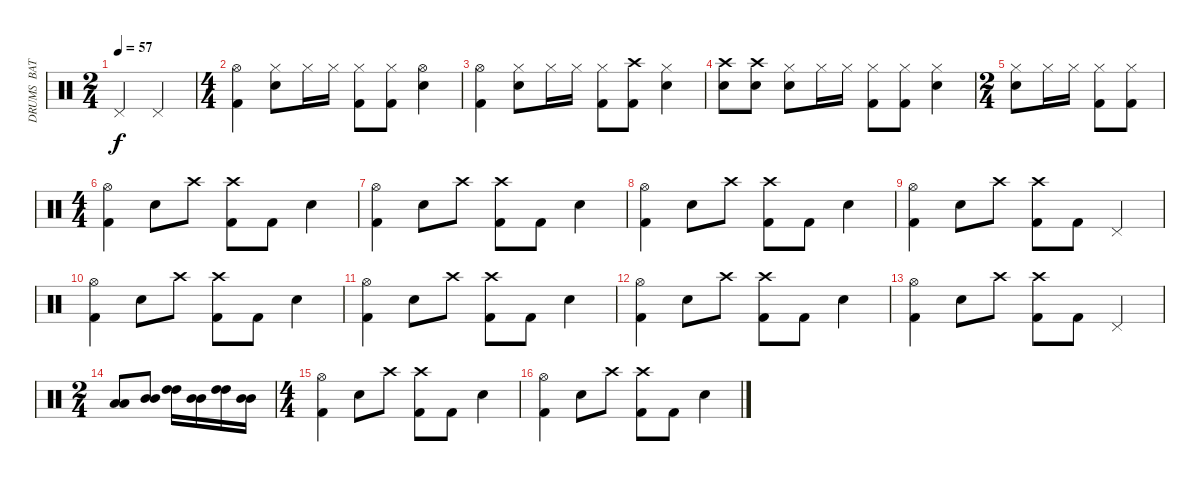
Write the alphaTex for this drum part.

\track ("DRUMS  BATERIA" "DRUMS  BAT") {instrument percussion}
\staff {score}
\articulation defaults
\ts (2 4)
\tempo 57
\clef neutral
\ks c "Pedal Hi-Hat (hit)".4{dy f} "Pedal Hi-Hat (hit)".4
|
\ts (4 4)
("Hi-Hat (open)" "Kick (hit) 2").4 ("Hi-Hat (closed)" "Snare (hit) 2").8 "Hi-Hat (closed)".16 "Hi-Hat (closed)".16 ("Hi-Hat (closed)" "Kick (hit) 2").8 ("Hi-Hat (closed)" "Kick (hit) 2").8 ("Hi-Hat (open)" "Snare (hit) 2").4 |
("Hi-Hat (open)" "Kick (hit) 2").4 ("Hi-Hat (closed)" "Snare (hit) 2").8 "Hi-Hat (closed)".16 "Hi-Hat (closed)".16 ("Hi-Hat (closed)" "Kick (hit) 2").8 ("Crash high (hit)" "Kick (hit) 2").8 ("Hi-Hat (closed)" "Snare (hit) 2").4 |
("Crash high (hit)" "Snare (hit) 2").8 ("Crash high (hit)" "Snare (hit) 2").8 ("Hi-Hat (closed)" "Snare (hit) 2").8 "Hi-Hat (closed)".16 "Hi-Hat (closed)".16 ("Hi-Hat (closed)" "Kick (hit) 2").8 ("Hi-Hat (closed)" "Kick (hit) 2").8 ("Hi-Hat (closed)" "Snare (hit) 2").4 |
\ts (2 4)
("Hi-Hat (closed)" "Snare (hit) 2").8 "Hi-Hat (closed)".16 "Hi-Hat (closed)".16 ("Hi-Hat (closed)" "Kick (hit) 2").8 ("Hi-Hat (closed)" "Kick (hit) 2").8 |
\ts (4 4)
("Hi-Hat (open)" "Kick (hit) 2").4 "Snare (hit) 2".8 "Crash high (hit)".8 ("Crash high (hit)" "Kick (hit) 2").8 "Kick (hit) 2".8 "Snare (hit) 2".4 |
("Hi-Hat (open)" "Kick (hit) 2").4 "Snare (hit) 2".8 "Crash high (hit)".8 ("Crash high (hit)" "Kick (hit) 2").8 "Kick (hit) 2".8 "Snare (hit) 2".4 |
("Hi-Hat (open)" "Kick (hit) 2").4 "Snare (hit) 2".8 "Crash high (hit)".8 ("Crash high (hit)" "Kick (hit) 2").8 "Kick (hit) 2".8 "Snare (hit) 2".4 |
("Hi-Hat (open)" "Kick (hit) 2").4 "Snare (hit) 2".8 "Crash high (hit)".8 ("Crash high (hit)" "Kick (hit) 2").8 "Kick (hit) 2".8 "Pedal Hi-Hat (hit)".4 |
("Hi-Hat (open)" "Kick (hit) 2").4 "Snare (hit) 2".8 "Crash high (hit)".8 ("Crash high (hit)" "Kick (hit) 2").8 "Kick (hit) 2".8 "Snare (hit) 2".4 |
("Hi-Hat (open)" "Kick (hit) 2").4 "Snare (hit) 2".8 "Crash high (hit)".8 ("Crash high (hit)" "Kick (hit) 2").8 "Kick (hit) 2".8 "Snare (hit) 2".4 |
("Hi-Hat (open)" "Kick (hit) 2").4 "Snare (hit) 2".8 "Crash high (hit)".8 ("Crash high (hit)" "Kick (hit) 2").8 "Kick (hit) 2".8 "Snare (hit) 2".4 |
("Hi-Hat (open)" "Kick (hit) 2").4 "Snare (hit) 2".8 "Crash high (hit)".8 ("Crash high (hit)" "Kick (hit) 2").8 "Kick (hit) 2".8 "Pedal Hi-Hat (hit)".4 |
\ts (2 4)
("Low Tom (hit)" "Low Tom (hit)").8 ("Mid Tom (hit)" "Mid Tom (hit)").8 ("High Tom (hit)" "High Tom (hit)").16 ("Mid Tom (hit)" "Mid Tom (hit)").16 ("High Tom (hit)" "High Tom (hit)").16 ("Mid Tom (hit)" "Mid Tom (hit)").16 |
\ts (4 4)
("Hi-Hat (open)" "Kick (hit) 2").4 "Snare (hit) 2".8 "Crash high (hit)".8 ("Crash high (hit)" "Kick (hit) 2").8 "Kick (hit) 2".8 "Snare (hit) 2".4 |
("Hi-Hat (open)" "Kick (hit) 2").4 "Snare (hit) 2".8 "Crash high (hit)".8 ("Crash high (hit)" "Kick (hit) 2").8 "Kick (hit) 2".8 "Snare (hit) 2".4
